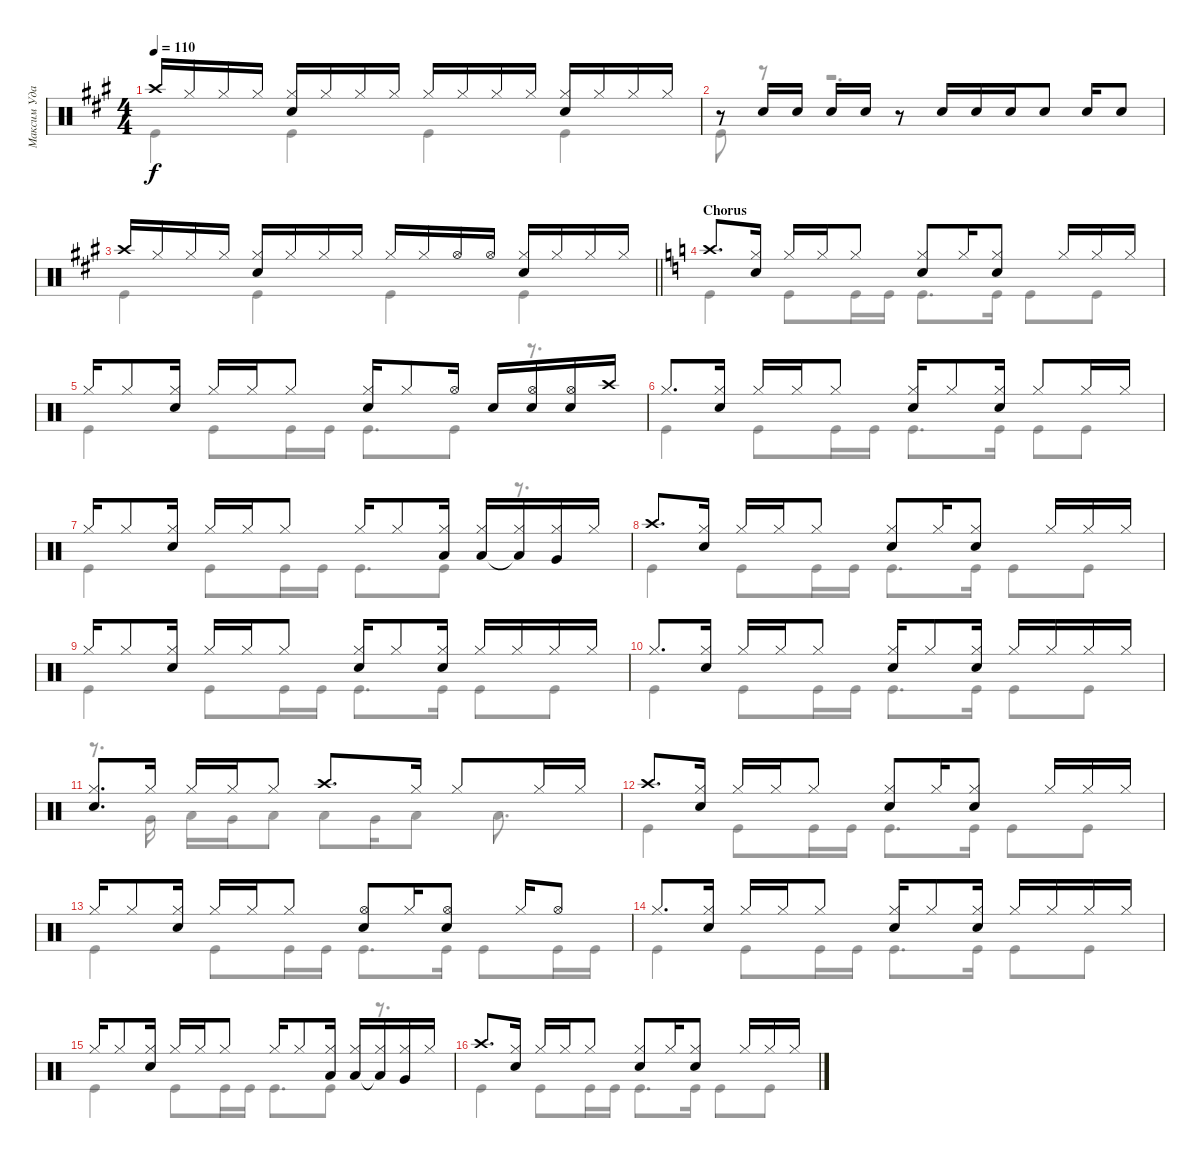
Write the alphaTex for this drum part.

\track ("Максим Удалов" "Максим Уда") {instrument percussion}
\staff {score}
\articulation defaults
\voice
\ts (4 4)
\tempo 110
\clef neutral
\ks a "Crash high (hit)".16{dy f} "Hi-Hat (closed)".16 "Hi-Hat (closed)".16 "Hi-Hat (closed)".16
("Hi-Hat (closed)" "Snare (hit) 2").16 "Hi-Hat (closed)".16 "Hi-Hat (closed)".16 "Hi-Hat (closed)".16 "Hi-Hat (closed)".16 "Hi-Hat (closed)".16 "Hi-Hat (closed)".16 "Hi-Hat (closed)".16 ("Hi-Hat (closed)" "Snare (hit) 2").16 "Hi-Hat (closed)".16 "Hi-Hat (closed)".16 "Hi-Hat (closed)".16 |
r.8 "Snare (hit) 2".16 "Snare (hit) 2".16 "Snare (hit) 2".16 "Snare (hit) 2".16 r.8 "Snare (hit) 2".16 "Snare (hit) 2".16 "Snare (hit) 2".16 "Snare (hit) 2".8 "Snare (hit) 2".16 "Snare (hit) 2".8 |
\barLineRight lightlight "Crash high (hit)".16 "Hi-Hat (closed)".16 "Hi-Hat (closed)".16 "Hi-Hat (closed)".16
("Hi-Hat (closed)" "Snare (hit) 2").16 "Hi-Hat (closed)".16 "Hi-Hat (closed)".16 "Hi-Hat (closed)".16 "Hi-Hat (closed)".16 "Hi-Hat (closed)".16 "Hi-Hat (open)".16 "Hi-Hat (open)".16 ("Hi-Hat (closed)" "Snare (hit) 2").16 "Hi-Hat (closed)".16 "Hi-Hat (closed)".16 "Hi-Hat (closed)".16 |
\section ("" "Chorus")
\ks c "Crash high (hit)".8{d}
("Hi-Hat (closed)" "Snare (hit) 2").16 "Hi-Hat (closed)".16 "Hi-Hat (closed)".16 "Hi-Hat (closed)".8 ("Hi-Hat (closed)" "Snare (hit) 2").8 "Hi-Hat (closed)".16 ("Hi-Hat (closed)" "Snare (hit) 2").8 "Hi-Hat (closed)".16 "Hi-Hat (closed)".16 "Hi-Hat (closed)".16 |
"Hi-Hat (closed)".16 "Hi-Hat (closed)".8 ("Hi-Hat (closed)" "Snare (hit) 2").16 "Hi-Hat (closed)".16 "Hi-Hat (closed)".16 "Hi-Hat (closed)".8 ("Hi-Hat (closed)" "Snare (hit) 2").16 "Hi-Hat (closed)".8 "Hi-Hat (open)".16 "Snare (hit) 2".16 ("Snare (hit) 2" "Hi-Hat (open)").16 ("Snare (hit) 2" "Hi-Hat (open)").16 "Crash high (hit)".16 |
"Hi-Hat (closed)".8{d} ("Snare (hit) 2" "Hi-Hat (closed)").16 "Hi-Hat (closed)".16 "Hi-Hat (closed)".16 "Hi-Hat (closed)".8 ("Hi-Hat (closed)" "Snare (hit) 2").16 "Hi-Hat (closed)".8 ("Hi-Hat (closed)" "Snare (hit) 2").16 "Hi-Hat (closed)".8 "Hi-Hat (closed)".16 "Hi-Hat (closed)".16 |
"Hi-Hat (closed)".16 "Hi-Hat (closed)".8 ("Snare (hit) 2" "Hi-Hat (closed)").16 "Hi-Hat (closed)".16 "Hi-Hat (closed)".16 "Hi-Hat (closed)".8 "Hi-Hat (closed)".16 "Hi-Hat (closed)".8 ("Hi-Hat (closed)" "Low Tom (hit)").16 ("Hi-Hat (closed)" "Low Tom (hit)").16 ("Hi-Hat (closed)" "Low Tom (hit)"{t}).16 ("Hi-Hat (closed)" "Very Low Tom (hit)").16 "Hi-Hat (closed)".16 |
"Crash high (hit)".8{d} ("Hi-Hat (closed)" "Snare (hit) 2").16 "Hi-Hat (closed)".16 "Hi-Hat (closed)".16 "Hi-Hat (closed)".8 ("Hi-Hat (closed)" "Snare (hit) 2").8 "Hi-Hat (closed)".16 ("Hi-Hat (closed)" "Snare (hit) 2").8 "Hi-Hat (closed)".16 "Hi-Hat (closed)".16 "Hi-Hat (closed)".16 |
"Hi-Hat (closed)".16 "Hi-Hat (closed)".8 ("Hi-Hat (closed)" "Snare (hit) 2").16 "Hi-Hat (closed)".16 "Hi-Hat (closed)".16 "Hi-Hat (closed)".8 ("Hi-Hat (closed)" "Snare (hit) 2").16 "Hi-Hat (closed)".8 ("Hi-Hat (closed)" "Snare (hit) 2").16 "Hi-Hat (closed)".16 "Hi-Hat (closed)".16 "Hi-Hat (closed)".16 "Hi-Hat (closed)".16 |
"Hi-Hat (closed)".8{d} ("Snare (hit) 2" "Hi-Hat (closed)").16 "Hi-Hat (closed)".16 "Hi-Hat (closed)".16 "Hi-Hat (closed)".8 ("Hi-Hat (closed)" "Snare (hit) 2").16 "Hi-Hat (closed)".8 ("Hi-Hat (closed)" "Snare (hit) 2").16 "Hi-Hat (closed)".16 "Hi-Hat (closed)".16 "Hi-Hat (closed)".16 "Hi-Hat (closed)".16 |
("Hi-Hat (closed)" "Snare (hit) 2").8{d} "Hi-Hat (closed)".16 "Hi-Hat (closed)".16 "Hi-Hat (closed)".16 "Hi-Hat (closed)".8 "Crash high (hit)".8{d} "Hi-Hat (closed)".16 "Hi-Hat (closed)".8 "Hi-Hat (closed)".16 "Hi-Hat (closed)".16 |
"Crash high (hit)".8{d} ("Hi-Hat (closed)" "Snare (hit) 2").16 "Hi-Hat (closed)".16 "Hi-Hat (closed)".16 "Hi-Hat (closed)".8 ("Hi-Hat (closed)" "Snare (hit) 2").8 "Hi-Hat (closed)".16 ("Hi-Hat (closed)" "Snare (hit) 2").8 "Hi-Hat (closed)".16 "Hi-Hat (closed)".16 "Hi-Hat (closed)".16 |
"Hi-Hat (closed)".16 "Hi-Hat (closed)".8 ("Hi-Hat (closed)" "Snare (hit) 2").16 "Hi-Hat (closed)".16 "Hi-Hat (closed)".16 "Hi-Hat (closed)".8 ("Snare (hit) 2" "Hi-Hat (open)").8 "Hi-Hat (closed)".16 ("Snare (hit) 2" "Hi-Hat (open)").8 "Hi-Hat (closed)".16 "Hi-Hat (open)".8 |
"Hi-Hat (closed)".8{d} ("Snare (hit) 2" "Hi-Hat (closed)").16 "Hi-Hat (closed)".16 "Hi-Hat (closed)".16 "Hi-Hat (closed)".8 ("Hi-Hat (closed)" "Snare (hit) 2").16 "Hi-Hat (closed)".8 ("Hi-Hat (closed)" "Snare (hit) 2").16 "Hi-Hat (closed)".16 "Hi-Hat (closed)".16 "Hi-Hat (closed)".16 "Hi-Hat (closed)".16 |
"Hi-Hat (closed)".16 "Hi-Hat (closed)".8 ("Snare (hit) 2" "Hi-Hat (closed)").16 "Hi-Hat (closed)".16 "Hi-Hat (closed)".16 "Hi-Hat (closed)".8 "Hi-Hat (closed)".16 "Hi-Hat (closed)".8 ("Hi-Hat (closed)" "Low Tom (hit)").16 ("Hi-Hat (closed)" "Low Tom (hit)").16 ("Hi-Hat (closed)" "Low Tom (hit)"{t}).16 ("Hi-Hat (closed)" "Very Low Tom (hit)").16 "Hi-Hat (closed)".16 |
"Crash high (hit)".8{d} ("Hi-Hat (closed)" "Snare (hit) 2").16 "Hi-Hat (closed)".16 "Hi-Hat (closed)".16 "Hi-Hat (closed)".8 ("Hi-Hat (closed)" "Snare (hit) 2").8 "Hi-Hat (closed)".16 ("Hi-Hat (closed)" "Snare (hit) 2").8 "Hi-Hat (closed)".16 "Hi-Hat (closed)".16 "Hi-Hat (closed)".16
\voice
\clef neutral
\ottava regular
\simile none
\ks a "Kick (hit)".4{dy f} "Kick (hit)".4 "Kick (hit)".4 "Kick (hit)".4
|
"Kick (hit)".8 r.8 r.2{d} |
\barLineRight lightlight "Kick (hit)".4 "Kick (hit)".4 "Kick (hit)".4 "Kick (hit)".4
|
\ks c "Kick (hit)".4 "Kick (hit)".8 "Kick (hit)".16 "Kick (hit)".16 "Kick (hit)".8{d} "Kick (hit)".16 "Kick (hit)".8 "Kick (hit)".8
|
"Kick (hit)".4 "Kick (hit)".8 "Kick (hit)".16 "Kick (hit)".16 "Kick (hit)".8{d} "Kick (hit)".8 r.8{d} |
"Kick (hit)".4 "Kick (hit)".8 "Kick (hit)".16 "Kick (hit)".16 "Kick (hit)".8{d} "Kick (hit)".16 "Kick (hit)".8 "Kick (hit)".8 |
"Kick (hit)".4 "Kick (hit)".8 "Kick (hit)".16 "Kick (hit)".16 "Kick (hit)".8{d} "Kick (hit)".8 r.8{d} |
"Kick (hit)".4 "Kick (hit)".8 "Kick (hit)".16 "Kick (hit)".16 "Kick (hit)".8{d} "Kick (hit)".16 "Kick (hit)".8 "Kick (hit)".8 |
"Kick (hit)".4 "Kick (hit)".8 "Kick (hit)".16 "Kick (hit)".16 "Kick (hit)".8{d} "Kick (hit)".16 "Kick (hit)".8 "Kick (hit)".8 |
"Kick (hit)".4 "Kick (hit)".8 "Kick (hit)".16 "Kick (hit)".16 "Kick (hit)".8{d} "Kick (hit)".16 "Kick (hit)".8 "Kick (hit)".8 |
r.8{d} "Very Low Tom (hit)".16 "Low Tom (hit)".16 "Very Low Tom (hit)".16 "Low Tom (hit)".8 "Low Tom (hit)".8 "Very Low Tom (hit)".16 "Low Tom (hit)".8 "Low Tom (hit)".8{d} |
"Kick (hit)".4 "Kick (hit)".8 "Kick (hit)".16 "Kick (hit)".16 "Kick (hit)".8{d} "Kick (hit)".16 "Kick (hit)".8 "Kick (hit)".8 |
"Kick (hit)".4 "Kick (hit)".8 "Kick (hit)".16 "Kick (hit)".16 "Kick (hit)".8{d} "Kick (hit)".16 "Kick (hit)".8 "Kick (hit)".16 "Kick (hit)".16 |
"Kick (hit)".4 "Kick (hit)".8 "Kick (hit)".16 "Kick (hit)".16 "Kick (hit)".8{d} "Kick (hit)".16 "Kick (hit)".8 "Kick (hit)".8 |
"Kick (hit)".4 "Kick (hit)".8 "Kick (hit)".16 "Kick (hit)".16 "Kick (hit)".8{d} "Kick (hit)".8 r.8{d} |
"Kick (hit)".4 "Kick (hit)".8 "Kick (hit)".16 "Kick (hit)".16 "Kick (hit)".8{d} "Kick (hit)".16 "Kick (hit)".8 "Kick (hit)".8
